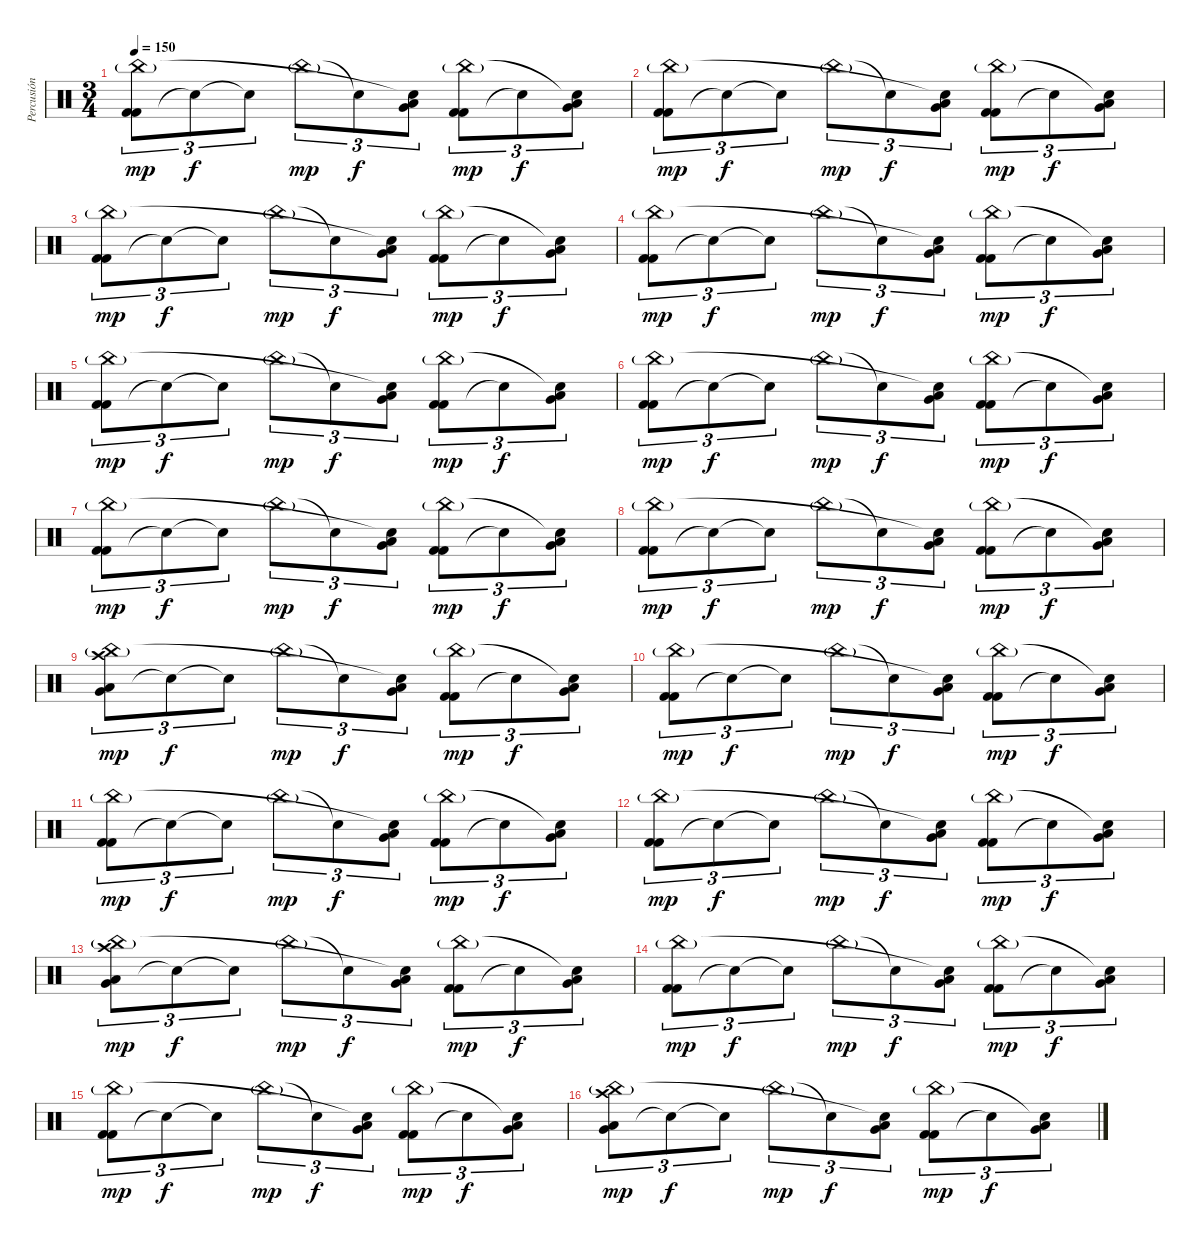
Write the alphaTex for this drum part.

\track ("Percusión" "Percusión") {instrument percussion}
\staff {score}
\articulation defaults
\ts (3 4)
\tempo 150
\clef neutral
\ks c
("Kick (hit) 2" "Kick (hit) 2" "China (hit)"{g}).8{tu (3 2) dy mp} "Snare (hit)"{t}.8{tu (3 2) dy f} "Snare (hit)"{t}.8{tu (3 2)} "China (hit)"{g}.8{tu (3 2) dy mp} "Snare (hit)"{t}.8{tu (3 2) dy f} ("Low Floor Tom (hit)" "Very Low Tom (hit)" "Snare (hit)"{t}).8{tu (3 2)} ("Kick (hit) 2" "Kick (hit) 2" "China (hit)"{g}).8{tu (3 2) dy mp} "Snare (hit)"{t}.8{tu (3 2) dy f} ("Low Floor Tom (hit)" "Very Low Tom (hit)" "Snare (hit)"{t}).8{tu (3 2)} |
("Kick (hit) 2" "Kick (hit) 2" "China (hit)"{g}).8{tu (3 2) dy mp} "Snare (hit)"{t}.8{tu (3 2) dy f} "Snare (hit)"{t}.8{tu (3 2)} "China (hit)"{g}.8{tu (3 2) dy mp} "Snare (hit)"{t}.8{tu (3 2) dy f} ("Low Floor Tom (hit)" "Very Low Tom (hit)" "Snare (hit)"{t}).8{tu (3 2)} ("Kick (hit) 2" "Kick (hit) 2" "China (hit)"{g}).8{tu (3 2) dy mp} "Snare (hit)"{t}.8{tu (3 2) dy f} ("Low Floor Tom (hit)" "Very Low Tom (hit)" "Snare (hit)"{t}).8{tu (3 2)} |
("Kick (hit) 2" "Kick (hit) 2" "China (hit)"{g}).8{tu (3 2) dy mp} "Snare (hit)"{t}.8{tu (3 2) dy f} "Snare (hit)"{t}.8{tu (3 2)} "China (hit)"{g}.8{tu (3 2) dy mp} "Snare (hit)"{t}.8{tu (3 2) dy f} ("Low Floor Tom (hit)" "Very Low Tom (hit)" "Snare (hit)"{t}).8{tu (3 2)} ("Kick (hit) 2" "Kick (hit) 2" "China (hit)"{g}).8{tu (3 2) dy mp} "Snare (hit)"{t}.8{tu (3 2) dy f} ("Low Floor Tom (hit)" "Very Low Tom (hit)" "Snare (hit)"{t}).8{tu (3 2)} |
("Kick (hit) 2" "Kick (hit) 2" "China (hit)"{g}).8{tu (3 2) dy mp} "Snare (hit)"{t}.8{tu (3 2) dy f} "Snare (hit)"{t}.8{tu (3 2)} "China (hit)"{g}.8{tu (3 2) dy mp} "Snare (hit)"{t}.8{tu (3 2) dy f} ("Low Floor Tom (hit)" "Very Low Tom (hit)" "Snare (hit)"{t}).8{tu (3 2)} ("Kick (hit) 2" "Kick (hit) 2" "China (hit)"{g}).8{tu (3 2) dy mp} "Snare (hit)"{t}.8{tu (3 2) dy f} ("Low Floor Tom (hit)" "Very Low Tom (hit)" "Snare (hit)"{t}).8{tu (3 2)} |
("Kick (hit) 2" "Kick (hit) 2" "China (hit)"{g}).8{tu (3 2) dy mp} "Snare (hit)"{t}.8{tu (3 2) dy f} "Snare (hit)"{t}.8{tu (3 2)} "China (hit)"{g}.8{tu (3 2) dy mp} "Snare (hit)"{t}.8{tu (3 2) dy f} ("Low Floor Tom (hit)" "Very Low Tom (hit)" "Snare (hit)"{t}).8{tu (3 2)} ("Kick (hit) 2" "Kick (hit) 2" "China (hit)"{g}).8{tu (3 2) dy mp} "Snare (hit)"{t}.8{tu (3 2) dy f} ("Low Floor Tom (hit)" "Very Low Tom (hit)" "Snare (hit)"{t}).8{tu (3 2)} |
("Kick (hit) 2" "Kick (hit) 2" "China (hit)"{g}).8{tu (3 2) dy mp} "Snare (hit)"{t}.8{tu (3 2) dy f} "Snare (hit)"{t}.8{tu (3 2)} "China (hit)"{g}.8{tu (3 2) dy mp} "Snare (hit)"{t}.8{tu (3 2) dy f} ("Low Floor Tom (hit)" "Very Low Tom (hit)" "Snare (hit)"{t}).8{tu (3 2)} ("Kick (hit) 2" "Kick (hit) 2" "China (hit)"{g}).8{tu (3 2) dy mp} "Snare (hit)"{t}.8{tu (3 2) dy f} ("Low Floor Tom (hit)" "Very Low Tom (hit)" "Snare (hit)"{t}).8{tu (3 2)} |
("Kick (hit) 2" "Kick (hit) 2" "China (hit)"{g}).8{tu (3 2) dy mp} "Snare (hit)"{t}.8{tu (3 2) dy f} "Snare (hit)"{t}.8{tu (3 2)} "China (hit)"{g}.8{tu (3 2) dy mp} "Snare (hit)"{t}.8{tu (3 2) dy f} ("Low Floor Tom (hit)" "Very Low Tom (hit)" "Snare (hit)"{t}).8{tu (3 2)} ("Kick (hit) 2" "Kick (hit) 2" "China (hit)"{g}).8{tu (3 2) dy mp} "Snare (hit)"{t}.8{tu (3 2) dy f} ("Low Floor Tom (hit)" "Very Low Tom (hit)" "Snare (hit)"{t}).8{tu (3 2)} |
("Kick (hit) 2" "Kick (hit) 2" "China (hit)"{g}).8{tu (3 2) dy mp} "Snare (hit)"{t}.8{tu (3 2) dy f} "Snare (hit)"{t}.8{tu (3 2)} "China (hit)"{g}.8{tu (3 2) dy mp} "Snare (hit)"{t}.8{tu (3 2) dy f} ("Low Floor Tom (hit)" "Very Low Tom (hit)" "Snare (hit)"{t}).8{tu (3 2)} ("Kick (hit) 2" "Kick (hit) 2" "China (hit)"{g}).8{tu (3 2) dy mp} "Snare (hit)"{t}.8{tu (3 2) dy f} ("Low Floor Tom (hit)" "Very Low Tom (hit)" "Snare (hit)"{t}).8{tu (3 2)} |
("Low Floor Tom (hit)" "Very Low Tom (hit)" "China (hit)"{g} "Crash high (hit)").8{tu (3 2) dy mp} "Snare (hit)"{t}.8{tu (3 2) dy f} "Snare (hit)"{t}.8{tu (3 2)} "China (hit)"{g}.8{tu (3 2) dy mp} "Snare (hit)"{t}.8{tu (3 2) dy f} ("Low Floor Tom (hit)" "Very Low Tom (hit)" "Snare (hit)"{t}).8{tu (3 2)} ("Kick (hit) 2" "Kick (hit) 2" "China (hit)"{g}).8{tu (3 2) dy mp} "Snare (hit)"{t}.8{tu (3 2) dy f} ("Low Floor Tom (hit)" "Very Low Tom (hit)" "Snare (hit)"{t}).8{tu (3 2)} |
("Kick (hit) 2" "Kick (hit) 2" "China (hit)"{g}).8{tu (3 2) dy mp} "Snare (hit)"{t}.8{tu (3 2) dy f} "Snare (hit)"{t}.8{tu (3 2)} "China (hit)"{g}.8{tu (3 2) dy mp} "Snare (hit)"{t}.8{tu (3 2) dy f} ("Low Floor Tom (hit)" "Very Low Tom (hit)" "Snare (hit)"{t}).8{tu (3 2)} ("Kick (hit) 2" "Kick (hit) 2" "China (hit)"{g}).8{tu (3 2) dy mp} "Snare (hit)"{t}.8{tu (3 2) dy f} ("Low Floor Tom (hit)" "Very Low Tom (hit)" "Snare (hit)"{t}).8{tu (3 2)} |
("Kick (hit) 2" "Kick (hit) 2" "China (hit)"{g}).8{tu (3 2) dy mp} "Snare (hit)"{t}.8{tu (3 2) dy f} "Snare (hit)"{t}.8{tu (3 2)} "China (hit)"{g}.8{tu (3 2) dy mp} "Snare (hit)"{t}.8{tu (3 2) dy f} ("Low Floor Tom (hit)" "Very Low Tom (hit)" "Snare (hit)"{t}).8{tu (3 2)} ("Kick (hit) 2" "Kick (hit) 2" "China (hit)"{g}).8{tu (3 2) dy mp} "Snare (hit)"{t}.8{tu (3 2) dy f} ("Low Floor Tom (hit)" "Very Low Tom (hit)" "Snare (hit)"{t}).8{tu (3 2)} |
("Kick (hit) 2" "Kick (hit) 2" "China (hit)"{g}).8{tu (3 2) dy mp} "Snare (hit)"{t}.8{tu (3 2) dy f} "Snare (hit)"{t}.8{tu (3 2)} "China (hit)"{g}.8{tu (3 2) dy mp} "Snare (hit)"{t}.8{tu (3 2) dy f} ("Low Floor Tom (hit)" "Very Low Tom (hit)" "Snare (hit)"{t}).8{tu (3 2)} ("Kick (hit) 2" "Kick (hit) 2" "China (hit)"{g}).8{tu (3 2) dy mp} "Snare (hit)"{t}.8{tu (3 2) dy f} ("Low Floor Tom (hit)" "Very Low Tom (hit)" "Snare (hit)"{t}).8{tu (3 2)} |
("Low Floor Tom (hit)" "Very Low Tom (hit)" "China (hit)"{g} "Crash high (hit)").8{tu (3 2) dy mp} "Snare (hit)"{t}.8{tu (3 2) dy f} "Snare (hit)"{t}.8{tu (3 2)} "China (hit)"{g}.8{tu (3 2) dy mp} "Snare (hit)"{t}.8{tu (3 2) dy f} ("Low Floor Tom (hit)" "Very Low Tom (hit)" "Snare (hit)"{t}).8{tu (3 2)} ("Kick (hit) 2" "Kick (hit) 2" "China (hit)"{g}).8{tu (3 2) dy mp} "Snare (hit)"{t}.8{tu (3 2) dy f} ("Low Floor Tom (hit)" "Very Low Tom (hit)" "Snare (hit)"{t}).8{tu (3 2)} |
("Kick (hit) 2" "Kick (hit) 2" "China (hit)"{g}).8{tu (3 2) dy mp} "Snare (hit)"{t}.8{tu (3 2) dy f} "Snare (hit)"{t}.8{tu (3 2)} "China (hit)"{g}.8{tu (3 2) dy mp} "Snare (hit)"{t}.8{tu (3 2) dy f} ("Low Floor Tom (hit)" "Very Low Tom (hit)" "Snare (hit)"{t}).8{tu (3 2)} ("Kick (hit) 2" "Kick (hit) 2" "China (hit)"{g}).8{tu (3 2) dy mp} "Snare (hit)"{t}.8{tu (3 2) dy f} ("Low Floor Tom (hit)" "Very Low Tom (hit)" "Snare (hit)"{t}).8{tu (3 2)} |
("Kick (hit) 2" "Kick (hit) 2" "China (hit)"{g}).8{tu (3 2) dy mp} "Snare (hit)"{t}.8{tu (3 2) dy f} "Snare (hit)"{t}.8{tu (3 2)} "China (hit)"{g}.8{tu (3 2) dy mp} "Snare (hit)"{t}.8{tu (3 2) dy f} ("Low Floor Tom (hit)" "Very Low Tom (hit)" "Snare (hit)"{t}).8{tu (3 2)} ("Kick (hit) 2" "Kick (hit) 2" "China (hit)"{g}).8{tu (3 2) dy mp} "Snare (hit)"{t}.8{tu (3 2) dy f} ("Low Floor Tom (hit)" "Very Low Tom (hit)" "Snare (hit)"{t}).8{tu (3 2)} |
("Low Floor Tom (hit)" "Very Low Tom (hit)" "China (hit)"{g} "Crash high (hit)").8{tu (3 2) dy mp} "Snare (hit)"{t}.8{tu (3 2) dy f} "Snare (hit)"{t}.8{tu (3 2)} "China (hit)"{g}.8{tu (3 2) dy mp} "Snare (hit)"{t}.8{tu (3 2) dy f} ("Low Floor Tom (hit)" "Very Low Tom (hit)" "Snare (hit)"{t}).8{tu (3 2)} ("Kick (hit) 2" "Kick (hit) 2" "China (hit)"{g}).8{tu (3 2) dy mp} "Snare (hit)"{t}.8{tu (3 2) dy f} ("Low Floor Tom (hit)" "Very Low Tom (hit)" "Snare (hit)"{t}).8{tu (3 2)}
